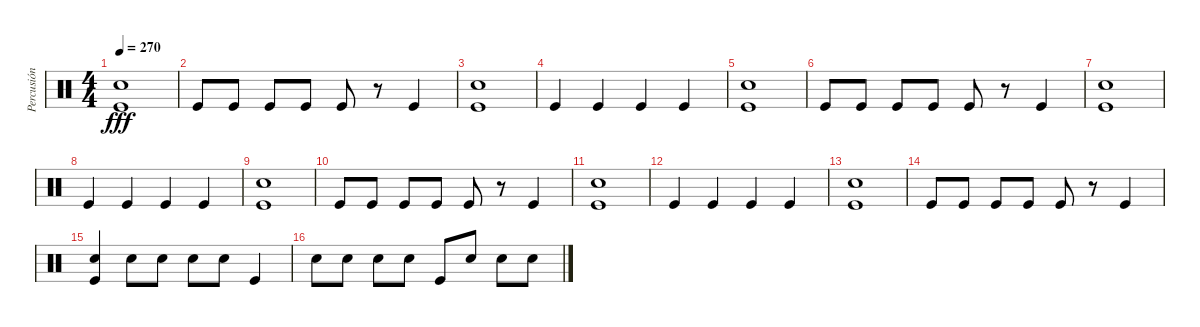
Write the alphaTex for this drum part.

\track ("Percusión" "Percusión") {instrument percussion}
\staff {score}
\articulation defaults
\ts (4 4)
\tempo 270
\clef neutral
\ks c
("Snare (hit) 2" "Kick (hit)").1{dy fff} |
"Kick (hit)".8 "Kick (hit)".8 "Kick (hit)".8 "Kick (hit)".8 "Kick (hit)".8 r.8 "Kick (hit)".4 |
("Snare (hit) 2" "Kick (hit)").1 |
"Kick (hit)".4 "Kick (hit)".4 "Kick (hit)".4 "Kick (hit)".4 |
("Snare (hit) 2" "Kick (hit)").1 |
"Kick (hit)".8 "Kick (hit)".8 "Kick (hit)".8 "Kick (hit)".8 "Kick (hit)".8 r.8 "Kick (hit)".4 |
("Snare (hit) 2" "Kick (hit)").1 |
"Kick (hit)".4 "Kick (hit)".4 "Kick (hit)".4 "Kick (hit)".4 |
("Snare (hit) 2" "Kick (hit)").1 |
"Kick (hit)".8 "Kick (hit)".8 "Kick (hit)".8 "Kick (hit)".8 "Kick (hit)".8 r.8 "Kick (hit)".4 |
("Snare (hit) 2" "Kick (hit)").1 |
"Kick (hit)".4 "Kick (hit)".4 "Kick (hit)".4 "Kick (hit)".4 |
("Snare (hit) 2" "Kick (hit)").1 |
"Kick (hit)".8 "Kick (hit)".8 "Kick (hit)".8 "Kick (hit)".8 "Kick (hit)".8 r.8 "Kick (hit)".4 |
("Snare (hit) 2" "Kick (hit)").4 "Snare (hit) 2".8 "Snare (hit) 2".8 "Snare (hit) 2".8 "Snare (hit) 2".8 "Kick (hit)".4 |
"Snare (hit) 2".8 "Snare (hit) 2".8 "Snare (hit) 2".8 "Snare (hit) 2".8 "Kick (hit)".8 "Snare (hit) 2".8 "Snare (hit) 2".8 "Snare (hit) 2".8
